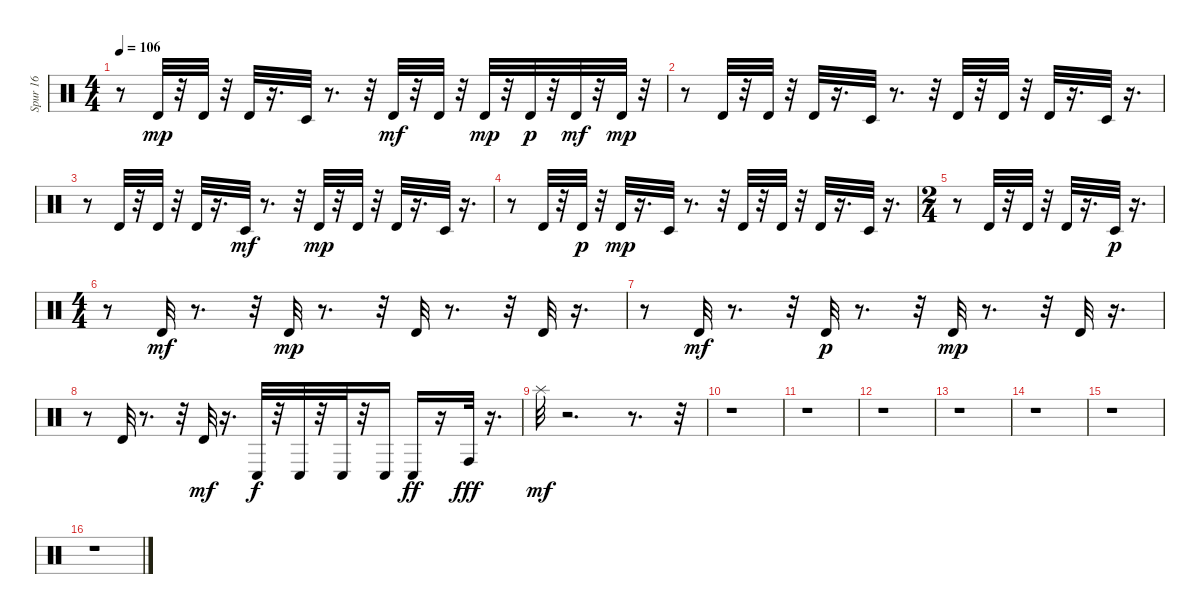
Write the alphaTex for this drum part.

\track ("Spur 16" "Spur 16") {instrument percussion}
\staff {score}
\articulation defaults
\ts (4 4)
\tempo 106
\clef neutral
\ks c
r.8{dy mf} "Timbale high (hit)".32{dy mp} r.32 "Timbale high (hit)".32 r.32 "Timbale high (hit)".32 r.16{d} "Timbale low (hit)".32 r.8{d} r.32 "Timbale high (hit)".32{dy mf} r.32 "Timbale high (hit)".32 r.32 "Timbale high (hit)".32{dy mp} r.32 "Timbale high (hit)".32{dy p} r.32 "Timbale high (hit)".32{dy mf} r.32 "Timbale high (hit)".32{dy mp} r.32 |
r.8 "Timbale high (hit)".32 r.32 "Timbale high (hit)".32 r.32 "Timbale high (hit)".32 r.16{d} "Timbale low (hit)".32 r.8{d} r.32 "Timbale high (hit)".32 r.32 "Timbale high (hit)".32 r.32 "Timbale high (hit)".32 r.16{d} "Timbale low (hit)".32 r.16{d} |
r.8 "Timbale high (hit)".32 r.32 "Timbale high (hit)".32 r.32 "Timbale high (hit)".32 r.16{d} "Timbale low (hit)".32{dy mf} r.8{d} r.32 "Timbale high (hit)".32{dy mp} r.32 "Timbale high (hit)".32 r.32 "Timbale high (hit)".32 r.16{d} "Timbale low (hit)".32 r.16{d} |
r.8 "Timbale high (hit)".32 r.32 "Timbale high (hit)".32{dy p} r.32 "Timbale high (hit)".32{dy mp} r.16{d} "Timbale low (hit)".32 r.8{d} r.32 "Timbale high (hit)".32 r.32 "Timbale high (hit)".32 r.32 "Timbale high (hit)".32 r.16{d} "Timbale low (hit)".32 r.16{d} |
\ts (2 4)
r.8 "Timbale high (hit)".32 r.32 "Timbale high (hit)".32 r.32 "Timbale high (hit)".32 r.16{d} "Timbale low (hit)".32{dy p} r.16{d} |
\ts (4 4)
r.8 "Timbale high (hit)".32{dy mf} r.8{d} r.32 "Timbale high (hit)".32{dy mp} r.8{d} r.32 "Timbale high (hit)".32 r.8{d} r.32 "Timbale high (hit)".32 r.16{d} |
r.8 "Timbale high (hit)".32{dy mf} r.8{d} r.32 "Timbale high (hit)".32{dy p} r.8{d} r.32 "Timbale high (hit)".32{dy mp} r.8{d} r.32 "Timbale high (hit)".32 r.16{d} |
r.8 "Timbale high (hit)".32 r.8{d} r.32 "Timbale high (hit)".32{dy mf} r.16{d} "Conga low (hit)".32{dy f} r.32 "Conga low (hit)".32 r.32 "Conga low (hit)".32 r.32 "Conga low (hit)".16 "Conga low (hit)".16{dy ff} r.16 "Conga high (hit)".32{dy fff} r.16{d} |
"Splash (hit)".32{dy mf} r.2{d} r.8{d} r.32 |
r.1 |
r.1 |
r.1 |
r.1 |
r.1 |
r.1 |
r.1
